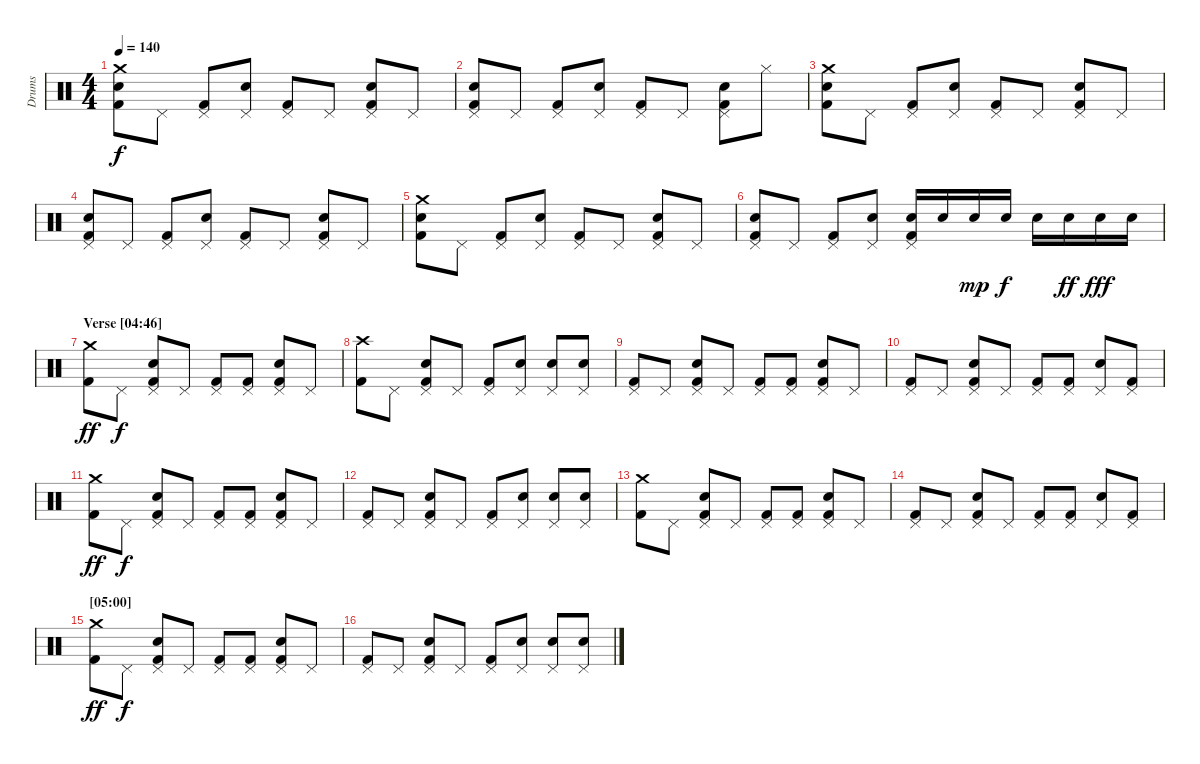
\track ("Drums" "Drums") {instrument percussion}
\staff {score}
\articulation defaults
\ts (4 4)
\tempo 140
\clef neutral
\ks c
("Crash medium (hit)" "Electric Snare (hit)" "Kick (hit) 2").8{dy f} "Pedal Hi-Hat (hit)".8 ("Pedal Hi-Hat (hit)" "Kick (hit) 2").8 ("Pedal Hi-Hat (hit)" "Electric Snare (hit)").8 ("Pedal Hi-Hat (hit)" "Kick (hit) 2").8 "Pedal Hi-Hat (hit)".8 ("Pedal Hi-Hat (hit)" "Electric Snare (hit)" "Kick (hit) 2").8 "Pedal Hi-Hat (hit)".8 |
("Pedal Hi-Hat (hit)" "Electric Snare (hit)" "Kick (hit) 2").8 "Pedal Hi-Hat (hit)".8 ("Pedal Hi-Hat (hit)" "Kick (hit) 2").8 ("Pedal Hi-Hat (hit)" "Electric Snare (hit)").8 ("Pedal Hi-Hat (hit)" "Kick (hit) 2").8 "Pedal Hi-Hat (hit)".8 ("Pedal Hi-Hat (hit)" "Electric Snare (hit)" "Kick (hit) 2").8 "Hi-Hat (closed)".8 |
("Crash medium (hit)" "Electric Snare (hit)" "Kick (hit) 2").8 "Pedal Hi-Hat (hit)".8 ("Pedal Hi-Hat (hit)" "Kick (hit) 2").8 ("Pedal Hi-Hat (hit)" "Electric Snare (hit)").8 ("Pedal Hi-Hat (hit)" "Kick (hit) 2").8 "Pedal Hi-Hat (hit)".8 ("Pedal Hi-Hat (hit)" "Electric Snare (hit)" "Kick (hit) 2").8 "Pedal Hi-Hat (hit)".8 |
("Pedal Hi-Hat (hit)" "Electric Snare (hit)" "Kick (hit) 2").8 "Pedal Hi-Hat (hit)".8 ("Pedal Hi-Hat (hit)" "Kick (hit) 2").8 ("Pedal Hi-Hat (hit)" "Electric Snare (hit)").8 ("Pedal Hi-Hat (hit)" "Kick (hit) 2").8 "Pedal Hi-Hat (hit)".8 ("Pedal Hi-Hat (hit)" "Electric Snare (hit)" "Kick (hit) 2").8 "Pedal Hi-Hat (hit)".8 |
("Crash medium (hit)" "Electric Snare (hit)" "Kick (hit) 2").8 "Pedal Hi-Hat (hit)".8 ("Pedal Hi-Hat (hit)" "Kick (hit) 2").8 ("Pedal Hi-Hat (hit)" "Electric Snare (hit)").8 ("Pedal Hi-Hat (hit)" "Kick (hit) 2").8 "Pedal Hi-Hat (hit)".8 ("Pedal Hi-Hat (hit)" "Electric Snare (hit)" "Kick (hit) 2").8 "Pedal Hi-Hat (hit)".8 |
("Pedal Hi-Hat (hit)" "Electric Snare (hit)" "Kick (hit) 2").8 "Pedal Hi-Hat (hit)".8 ("Pedal Hi-Hat (hit)" "Kick (hit) 2").8 ("Pedal Hi-Hat (hit)" "Electric Snare (hit)").8 ("Pedal Hi-Hat (hit)" "Electric Snare (hit)" "Kick (hit) 2").16 "Electric Snare (hit)".16 "Electric Snare (hit)".16{dy mp} "Electric Snare (hit)".16{dy f} "Electric Snare (hit)".16 "Electric Snare (hit)".16{dy ff} "Electric Snare (hit)".16{dy fff} "Electric Snare (hit)".16 |
\section ("" "Verse [04:46]")
("Crash medium (hit)" "Kick (hit) 2").8{dy ff} "Pedal Hi-Hat (hit)".8{dy f} ("Pedal Hi-Hat (hit)" "Electric Snare (hit)" "Kick (hit) 2").8 "Pedal Hi-Hat (hit)".8 ("Pedal Hi-Hat (hit)" "Kick (hit) 2").8 ("Pedal Hi-Hat (hit)" "Kick (hit) 2").8 ("Pedal Hi-Hat (hit)" "Electric Snare (hit)" "Kick (hit) 2").8 "Pedal Hi-Hat (hit)".8 |
("Crash high (hit)" "Kick (hit) 2").8 "Pedal Hi-Hat (hit)".8 ("Pedal Hi-Hat (hit)" "Electric Snare (hit)" "Kick (hit) 2").8 "Pedal Hi-Hat (hit)".8 ("Pedal Hi-Hat (hit)" "Kick (hit) 2").8 ("Pedal Hi-Hat (hit)" "Electric Snare (hit)").8 ("Pedal Hi-Hat (hit)" "Electric Snare (hit)").8 ("Pedal Hi-Hat (hit)" "Electric Snare (hit)").8 |
("Pedal Hi-Hat (hit)" "Kick (hit) 2").8 "Pedal Hi-Hat (hit)".8 ("Pedal Hi-Hat (hit)" "Electric Snare (hit)" "Kick (hit) 2").8 "Pedal Hi-Hat (hit)".8 ("Pedal Hi-Hat (hit)" "Kick (hit) 2").8 ("Pedal Hi-Hat (hit)" "Kick (hit) 2").8 ("Pedal Hi-Hat (hit)" "Electric Snare (hit)" "Kick (hit) 2").8 "Pedal Hi-Hat (hit)".8 |
("Pedal Hi-Hat (hit)" "Kick (hit) 2").8 "Pedal Hi-Hat (hit)".8 ("Pedal Hi-Hat (hit)" "Electric Snare (hit)" "Kick (hit) 2").8 "Pedal Hi-Hat (hit)".8 ("Pedal Hi-Hat (hit)" "Kick (hit) 2").8 ("Pedal Hi-Hat (hit)" "Kick (hit) 2").8 ("Pedal Hi-Hat (hit)" "Electric Snare (hit)").8 ("Pedal Hi-Hat (hit)" "Kick (hit) 2").8 |
\section ("" "")
("Crash medium (hit)" "Kick (hit) 2").8{dy ff} "Pedal Hi-Hat (hit)".8{dy f} ("Pedal Hi-Hat (hit)" "Electric Snare (hit)" "Kick (hit) 2").8 "Pedal Hi-Hat (hit)".8 ("Pedal Hi-Hat (hit)" "Kick (hit) 2").8 ("Pedal Hi-Hat (hit)" "Kick (hit) 2").8 ("Pedal Hi-Hat (hit)" "Electric Snare (hit)" "Kick (hit) 2").8 "Pedal Hi-Hat (hit)".8 |
("Pedal Hi-Hat (hit)" "Kick (hit) 2").8 "Pedal Hi-Hat (hit)".8 ("Pedal Hi-Hat (hit)" "Electric Snare (hit)" "Kick (hit) 2").8 "Pedal Hi-Hat (hit)".8 ("Pedal Hi-Hat (hit)" "Kick (hit) 2").8 ("Pedal Hi-Hat (hit)" "Electric Snare (hit)").8 ("Pedal Hi-Hat (hit)" "Electric Snare (hit)").8 ("Pedal Hi-Hat (hit)" "Electric Snare (hit)").8 |
("Crash medium (hit)" "Kick (hit) 2").8 "Pedal Hi-Hat (hit)".8 ("Pedal Hi-Hat (hit)" "Electric Snare (hit)" "Kick (hit) 2").8 "Pedal Hi-Hat (hit)".8 ("Pedal Hi-Hat (hit)" "Kick (hit) 2").8 ("Pedal Hi-Hat (hit)" "Kick (hit) 2").8 ("Pedal Hi-Hat (hit)" "Electric Snare (hit)" "Kick (hit) 2").8 "Pedal Hi-Hat (hit)".8 |
("Pedal Hi-Hat (hit)" "Kick (hit) 2").8 "Pedal Hi-Hat (hit)".8 ("Pedal Hi-Hat (hit)" "Electric Snare (hit)" "Kick (hit) 2").8 "Pedal Hi-Hat (hit)".8 ("Pedal Hi-Hat (hit)" "Kick (hit) 2").8 ("Pedal Hi-Hat (hit)" "Kick (hit) 2").8 ("Pedal Hi-Hat (hit)" "Electric Snare (hit)").8 ("Pedal Hi-Hat (hit)" "Kick (hit) 2").8 |
\section ("" "[05:00]")
("Crash medium (hit)" "Kick (hit) 2").8{dy ff} "Pedal Hi-Hat (hit)".8{dy f} ("Pedal Hi-Hat (hit)" "Electric Snare (hit)" "Kick (hit) 2").8 "Pedal Hi-Hat (hit)".8 ("Pedal Hi-Hat (hit)" "Kick (hit) 2").8 ("Pedal Hi-Hat (hit)" "Kick (hit) 2").8 ("Pedal Hi-Hat (hit)" "Electric Snare (hit)" "Kick (hit) 2").8 "Pedal Hi-Hat (hit)".8 |
("Pedal Hi-Hat (hit)" "Kick (hit) 2").8 "Pedal Hi-Hat (hit)".8 ("Pedal Hi-Hat (hit)" "Electric Snare (hit)" "Kick (hit) 2").8 "Pedal Hi-Hat (hit)".8 ("Pedal Hi-Hat (hit)" "Kick (hit) 2").8 ("Pedal Hi-Hat (hit)" "Electric Snare (hit)").8 ("Pedal Hi-Hat (hit)" "Electric Snare (hit)").8 ("Pedal Hi-Hat (hit)" "Electric Snare (hit)").8
